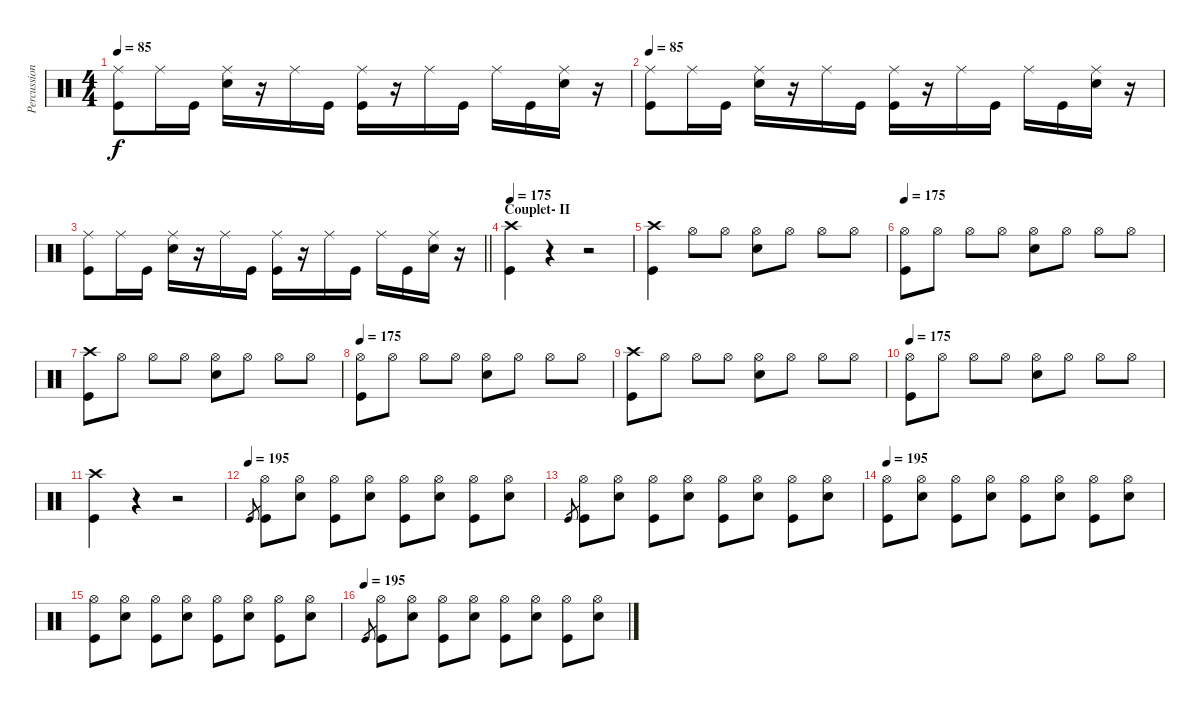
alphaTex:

\track ("Percussion" "Percussion") {instrument percussion}
\staff {score}
\articulation defaults
\ts (4 4)
\tempo 85
\clef neutral
\ks c
("Ride (middle)" "Kick (hit)").8{dy f} "Ride (middle)".16 "Kick (hit)".16 ("Ride (middle)" "Snare (hit) 2").16 r.16 "Ride (middle)".16 "Kick (hit)".16 ("Ride (middle)" "Kick (hit)").16 r.16 "Ride (middle)".16 "Kick (hit)".16 "Ride (middle)".16 "Kick (hit)".16 ("Ride (middle)" "Snare (hit) 2").16 r.16 |
\tempo 85
("Ride (middle)" "Kick (hit)").8 "Ride (middle)".16 "Kick (hit)".16 ("Ride (middle)" "Snare (hit) 2").16 r.16 "Ride (middle)".16 "Kick (hit)".16 ("Ride (middle)" "Kick (hit)").16 r.16 "Ride (middle)".16 "Kick (hit)".16 "Ride (middle)".16 "Kick (hit)".16 ("Ride (middle)" "Snare (hit) 2").16 r.16 |
\barLineRight lightlight
("Ride (middle)" "Kick (hit)").8 "Ride (middle)".16 "Kick (hit)".16 ("Ride (middle)" "Snare (hit) 2").16 r.16 "Ride (middle)".16 "Kick (hit)".16 ("Ride (middle)" "Kick (hit)").16 r.16 "Ride (middle)".16 "Kick (hit)".16 "Ride (middle)".16 "Kick (hit)".16 ("Ride (middle)" "Snare (hit) 2").16 r.16 |
\section ("" "Couplet- II")
\tempo 175
("Crash high (hit)" "Kick (hit)").4 r.4 r.2 |
("Crash high (hit)" "Kick (hit)").4 "Hi-Hat (open)".8 "Hi-Hat (open)".8 ("Hi-Hat (open)" "Electric Snare (hit)").8 "Hi-Hat (open)".8 "Hi-Hat (open)".8 "Hi-Hat (open)".8 |
\tempo 175
("Hi-Hat (open)" "Kick (hit)").8 "Hi-Hat (open)".8 "Hi-Hat (open)".8 "Hi-Hat (open)".8 ("Hi-Hat (open)" "Electric Snare (hit)").8 "Hi-Hat (open)".8 "Hi-Hat (open)".8 "Hi-Hat (open)".8 |
("Crash high (hit)" "Kick (hit)").8 "Hi-Hat (open)".8 "Hi-Hat (open)".8 "Hi-Hat (open)".8 ("Hi-Hat (open)" "Electric Snare (hit)").8 "Hi-Hat (open)".8 "Hi-Hat (open)".8 "Hi-Hat (open)".8 |
\tempo 175
("Hi-Hat (open)" "Kick (hit)").8 "Hi-Hat (open)".8 "Hi-Hat (open)".8 "Hi-Hat (open)".8 ("Hi-Hat (open)" "Electric Snare (hit)").8 "Hi-Hat (open)".8 "Hi-Hat (open)".8 "Hi-Hat (open)".8 |
("Crash high (hit)" "Kick (hit)").8 "Hi-Hat (open)".8 "Hi-Hat (open)".8 "Hi-Hat (open)".8 ("Hi-Hat (open)" "Electric Snare (hit)").8 "Hi-Hat (open)".8 "Hi-Hat (open)".8 "Hi-Hat (open)".8 |
\tempo 175
("Hi-Hat (open)" "Kick (hit)").8 "Hi-Hat (open)".8 "Hi-Hat (open)".8 "Hi-Hat (open)".8 ("Hi-Hat (open)" "Electric Snare (hit)").8 "Hi-Hat (open)".8 "Hi-Hat (open)".8 "Hi-Hat (open)".8 |
("Crash high (hit)" "Kick (hit)").4 r.4 r.2 |
\tempo (195)
"Kick (hit)".8{gr} ("Hi-Hat (open)" "Kick (hit)").8 ("Hi-Hat (open)" "Electric Snare (hit)").8 ("Hi-Hat (open)" "Kick (hit)").8 ("Hi-Hat (open)" "Electric Snare (hit)").8 ("Hi-Hat (open)" "Kick (hit)").8 ("Hi-Hat (open)" "Electric Snare (hit)").8 ("Hi-Hat (open)" "Kick (hit)").8 ("Hi-Hat (open)" "Electric Snare (hit)").8 |
"Kick (hit)".8{gr} ("Hi-Hat (open)" "Kick (hit)").8 ("Hi-Hat (open)" "Electric Snare (hit)").8 ("Hi-Hat (open)" "Kick (hit)").8 ("Hi-Hat (open)" "Electric Snare (hit)").8 ("Hi-Hat (open)" "Kick (hit)").8 ("Hi-Hat (open)" "Electric Snare (hit)").8 ("Hi-Hat (open)" "Kick (hit)").8 ("Hi-Hat (open)" "Electric Snare (hit)").8 |
\tempo 195
("Hi-Hat (open)" "Kick (hit)").8 ("Hi-Hat (open)" "Electric Snare (hit)").8 ("Hi-Hat (open)" "Kick (hit)").8 ("Hi-Hat (open)" "Electric Snare (hit)").8 ("Hi-Hat (open)" "Kick (hit)").8 ("Hi-Hat (open)" "Electric Snare (hit)").8 ("Hi-Hat (open)" "Kick (hit)").8 ("Hi-Hat (open)" "Electric Snare (hit)").8 |
("Hi-Hat (open)" "Kick (hit)").8 ("Hi-Hat (open)" "Electric Snare (hit)").8 ("Hi-Hat (open)" "Kick (hit)").8 ("Hi-Hat (open)" "Electric Snare (hit)").8 ("Hi-Hat (open)" "Kick (hit)").8 ("Hi-Hat (open)" "Electric Snare (hit)").8 ("Hi-Hat (open)" "Kick (hit)").8 ("Hi-Hat (open)" "Electric Snare (hit)").8 |
\tempo (195)
"Kick (hit)".8{gr} ("Hi-Hat (open)" "Kick (hit)").8 ("Hi-Hat (open)" "Electric Snare (hit)").8 ("Hi-Hat (open)" "Kick (hit)").8 ("Hi-Hat (open)" "Electric Snare (hit)").8 ("Hi-Hat (open)" "Kick (hit)").8 ("Hi-Hat (open)" "Electric Snare (hit)").8 ("Hi-Hat (open)" "Kick (hit)").8 ("Hi-Hat (open)" "Electric Snare (hit)").8
